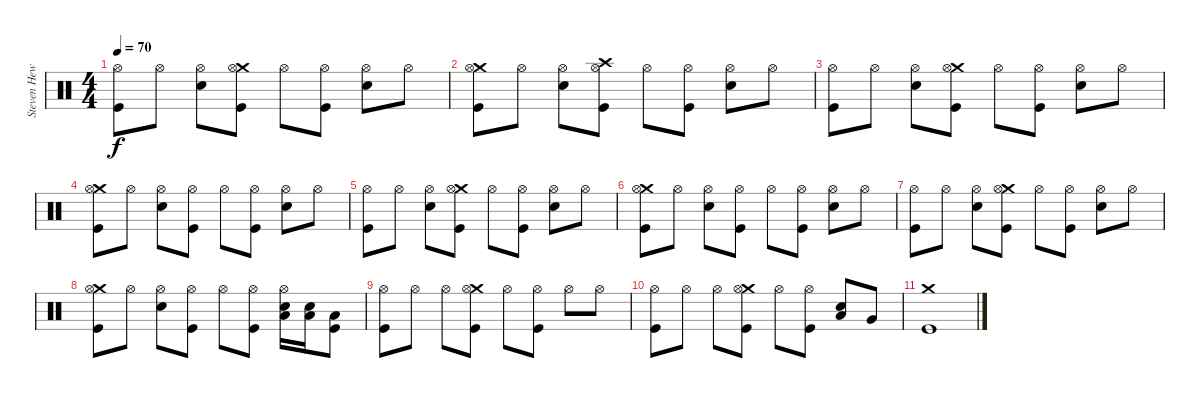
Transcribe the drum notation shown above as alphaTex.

\track ("Steven Hewitt " "Steven Hew") {instrument percussion}
\staff {score}
\articulation defaults
\ts (4 4)
\tempo 70
\clef neutral
\ks c
("Hi-Hat (open)" "Kick (hit)").8{dy f} "Hi-Hat (open)".8 ("Snare (hit) 2" "Hi-Hat (open)").8 ("Crash medium (hit)" "Hi-Hat (open)" "Kick (hit)").8 "Hi-Hat (open)".8 ("Hi-Hat (open)" "Kick (hit)").8 ("Snare (hit) 2" "Hi-Hat (open)").8 "Hi-Hat (open)".8 |
("Crash medium (hit)" "Hi-Hat (open)" "Kick (hit)").8 "Hi-Hat (open)".8 ("Snare (hit) 2" "Hi-Hat (open)").8 ("Crash high (hit)" "Hi-Hat (open)" "Kick (hit)").8 "Hi-Hat (open)".8 ("Hi-Hat (open)" "Kick (hit)").8 ("Snare (hit) 2" "Hi-Hat (open)").8 "Hi-Hat (open)".8 |
("Hi-Hat (open)" "Kick (hit)").8 "Hi-Hat (open)".8 ("Snare (hit) 2" "Hi-Hat (open)").8 ("Crash medium (hit)" "Hi-Hat (open)" "Kick (hit)").8 "Hi-Hat (open)".8 ("Hi-Hat (open)" "Kick (hit)").8 ("Snare (hit) 2" "Hi-Hat (open)").8 "Hi-Hat (open)".8 |
("Crash medium (hit)" "Hi-Hat (open)" "Kick (hit)").8 "Hi-Hat (open)".8 ("Snare (hit) 2" "Hi-Hat (open)").8 ("Hi-Hat (open)" "Kick (hit)").8 "Hi-Hat (open)".8 ("Hi-Hat (open)" "Kick (hit)").8 ("Snare (hit) 2" "Hi-Hat (open)").8 "Hi-Hat (open)".8 |
("Hi-Hat (open)" "Kick (hit)").8 "Hi-Hat (open)".8 ("Snare (hit) 2" "Hi-Hat (open)").8 ("Crash medium (hit)" "Hi-Hat (open)" "Kick (hit)").8 "Hi-Hat (open)".8 ("Hi-Hat (open)" "Kick (hit)").8 ("Snare (hit) 2" "Hi-Hat (open)").8 "Hi-Hat (open)".8 |
("Crash medium (hit)" "Hi-Hat (open)" "Kick (hit)").8 "Hi-Hat (open)".8 ("Snare (hit) 2" "Hi-Hat (open)").8 ("Hi-Hat (open)" "Kick (hit)").8 "Hi-Hat (open)".8 ("Hi-Hat (open)" "Kick (hit)").8 ("Snare (hit) 2" "Hi-Hat (open)").8 "Hi-Hat (open)".8 |
("Hi-Hat (open)" "Kick (hit)").8 "Hi-Hat (open)".8 ("Snare (hit) 2" "Hi-Hat (open)").8 ("Crash medium (hit)" "Hi-Hat (open)" "Kick (hit)").8 "Hi-Hat (open)".8 ("Hi-Hat (open)" "Kick (hit)").8 ("Snare (hit) 2" "Hi-Hat (open)").8 "Hi-Hat (open)".8 |
("Crash medium (hit)" "Hi-Hat (open)" "Kick (hit)").8 "Hi-Hat (open)".8 ("Snare (hit) 2" "Hi-Hat (open)").8 ("Hi-Hat (open)" "Kick (hit)").8 "Hi-Hat (open)".8 ("Hi-Hat (open)" "Kick (hit)").8 ("Low Tom (hit)" "Snare (hit) 2" "Hi-Hat (open)").16 ("Snare (hit) 2" "Low Tom (hit)").16 ("Low Tom (hit)" "Kick (hit)").8 |
("Hi-Hat (open)" "Kick (hit)").8 "Hi-Hat (open)".8 "Hi-Hat (open)".8 ("Crash medium (hit)" "Hi-Hat (open)" "Kick (hit)").8 "Hi-Hat (open)".8 ("Hi-Hat (open)" "Kick (hit)").8 "Hi-Hat (open)".8 "Hi-Hat (open)".8 |
("Hi-Hat (open)" "Kick (hit)").8 "Hi-Hat (open)".8 "Hi-Hat (open)".8 ("Crash medium (hit)" "Hi-Hat (open)" "Kick (hit)").8 "Hi-Hat (open)".8 ("Hi-Hat (open)" "Kick (hit)").8 ("Snare (hit) 2" "Low Tom (hit)").8 "Very Low Tom (hit)".8 |
("Kick (hit)" "Crash medium (hit)").1
